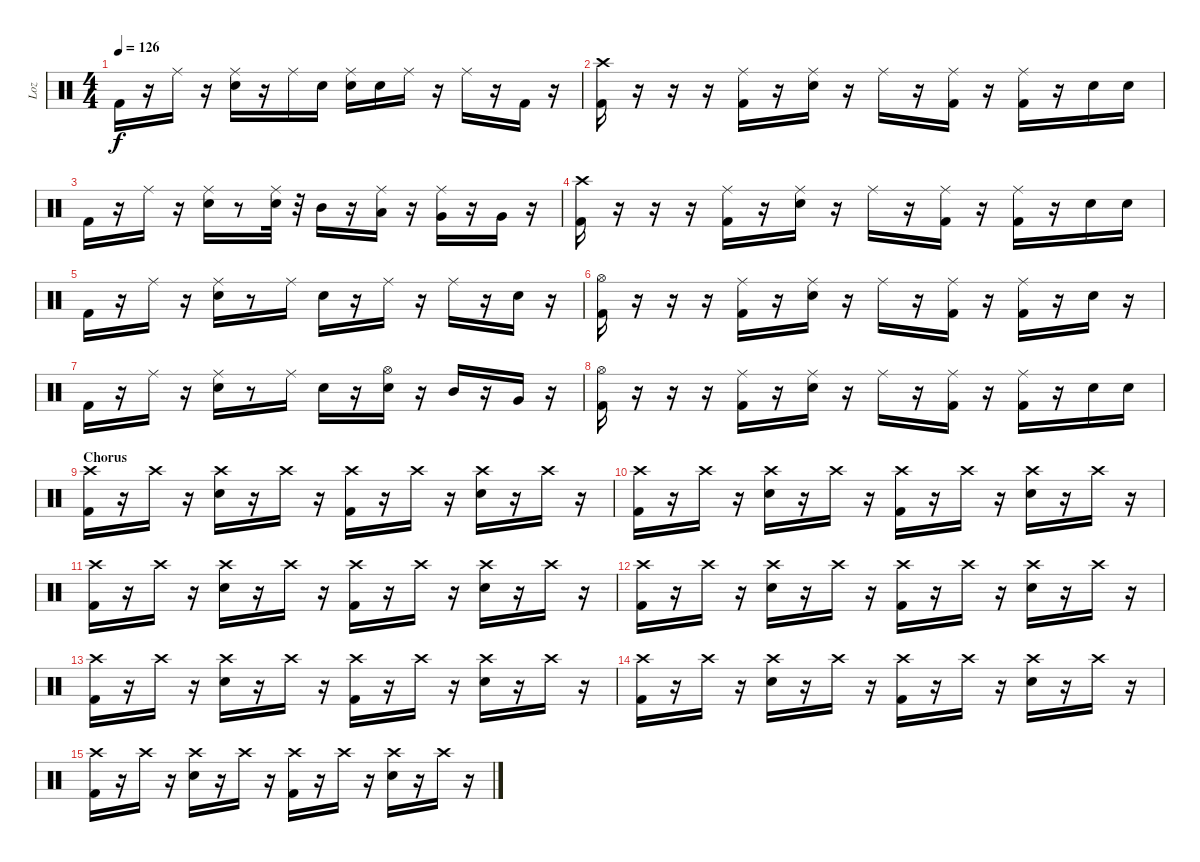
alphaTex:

\track ("Loz" "Loz") {instrument percussion}
\staff {score}
\articulation defaults
\ts (4 4)
\tempo 126
\clef neutral
\ks c "Kick (hit) 2".16{dy f}
r.16 "Ride (middle)".16 r.16 ("Ride (middle)" "Snare (hit) 2").16 r.16 "Ride (middle)".16 "Snare (hit) 2".16 ("Ride (middle)" "Snare (hit) 2").16 "Snare (hit) 2".16 "Ride (middle)".16 r.16 "Ride (middle)".16 r.16 "Kick (hit) 2".16 r.16 |
("Crash high (hit)" "Kick (hit) 2").16 r.16 r.16 r.16 ("Ride (middle)" "Kick (hit) 2").16 r.16 ("Ride (middle)" "Snare (hit) 2").16 r.16 "Ride (middle)".16 r.16 ("Ride (middle)" "Kick (hit) 2").16 r.16 ("Ride (middle)" "Kick (hit) 2").16 r.16 "Snare (hit) 2".16 "Snare (hit) 2".16 |
"Kick (hit) 2".16 r.16 "Ride (middle)".16 r.16 ("Ride (middle)" "Snare (hit) 2").16 r.8 ("Ride (middle)" "Snare (hit) 2").32 r.32 "Mid Tom (hit)".16 r.16 ("Ride (middle)" "Low Tom (hit)").16 r.16 ("Ride (middle)" "Very Low Tom (hit)").16 r.16 "Very Low Tom (hit)".16 r.16 |
("Crash high (hit)" "Kick (hit) 2").16 r.16 r.16 r.16 ("Ride (middle)" "Kick (hit) 2").16 r.16 ("Ride (middle)" "Snare (hit) 2").16 r.16 "Ride (middle)".16 r.16 ("Ride (middle)" "Kick (hit) 2").16 r.16 ("Ride (middle)" "Kick (hit) 2").16 r.16 "Snare (hit) 2".16 "Snare (hit) 2".16 |
"Kick (hit) 2".16 r.16 "Ride (middle)".16 r.16 ("Ride (middle)" "Snare (hit) 2").16 r.8 "Ride (middle)".16 "Snare (hit) 2".16 r.16 "Ride (middle)".16 r.16 "Ride (middle)".16 r.16 "Snare (hit) 2".16 r.16 |
("Hi-Hat (open)" "Kick (hit) 2").16 r.16 r.16 r.16 ("Ride (middle)" "Kick (hit) 2").16 r.16 ("Ride (middle)" "Snare (hit) 2").16 r.16 "Ride (middle)".16 r.16 ("Ride (middle)" "Kick (hit) 2").16 r.16 ("Ride (middle)" "Kick (hit) 2").16 r.16 "Snare (hit) 2".16 r.16 |
"Kick (hit) 2".16 r.16 "Ride (middle)".16 r.16 ("Ride (middle)" "Snare (hit) 2").16 r.8 "Ride (middle)".16 "Snare (hit) 2".16 r.16 ("Hi-Hat (open)" "Snare (hit) 2").16 r.16 "Mid Tom (hit)".16 r.16 "Very Low Tom (hit)".16 r.16 |
("Hi-Hat (open)" "Kick (hit) 2").16 r.16 r.16 r.16 ("Ride (middle)" "Kick (hit) 2").16 r.16 ("Ride (middle)" "Snare (hit) 2").16 r.16 "Ride (middle)".16 r.16 ("Ride (middle)" "Kick (hit) 2").16 r.16 ("Ride (middle)" "Kick (hit) 2").16 r.16 "Snare (hit) 2".16 "Snare (hit) 2".16 |
\section ("" "Chorus")
("Crash high (hit)" "Kick (hit) 2").16 r.16 "Crash high (hit)".16 r.16 ("Crash high (hit)" "Snare (hit) 2").16 r.16 "Crash high (hit)".16 r.16 ("Crash high (hit)" "Kick (hit) 2").16 r.16 "Crash high (hit)".16 r.16 ("Crash high (hit)" "Snare (hit) 2").16 r.16 "Crash high (hit)".16 r.16 |
("Crash high (hit)" "Kick (hit) 2").16 r.16 "Crash high (hit)".16 r.16 ("Crash high (hit)" "Snare (hit) 2").16 r.16 "Crash high (hit)".16 r.16 ("Crash high (hit)" "Kick (hit) 2").16 r.16 "Crash high (hit)".16 r.16 ("Crash high (hit)" "Snare (hit) 2").16 r.16 "Crash high (hit)".16 r.16 |
("Crash high (hit)" "Kick (hit) 2").16 r.16 "Crash high (hit)".16 r.16 ("Crash high (hit)" "Snare (hit) 2").16 r.16 "Crash high (hit)".16 r.16 ("Crash high (hit)" "Kick (hit) 2").16 r.16 "Crash high (hit)".16 r.16 ("Crash high (hit)" "Snare (hit) 2").16 r.16 "Crash high (hit)".16 r.16 |
("Crash high (hit)" "Kick (hit) 2").16 r.16 "Crash high (hit)".16 r.16 ("Crash high (hit)" "Snare (hit) 2").16 r.16 "Crash high (hit)".16 r.16 ("Crash high (hit)" "Kick (hit) 2").16 r.16 "Crash high (hit)".16 r.16 ("Crash high (hit)" "Snare (hit) 2").16 r.16 "Crash high (hit)".16 r.16 |
("Crash high (hit)" "Kick (hit) 2").16 r.16 "Crash high (hit)".16 r.16 ("Crash high (hit)" "Snare (hit) 2").16 r.16 "Crash high (hit)".16 r.16 ("Crash high (hit)" "Kick (hit) 2").16 r.16 "Crash high (hit)".16 r.16 ("Crash high (hit)" "Snare (hit) 2").16 r.16 "Crash high (hit)".16 r.16 |
("Crash high (hit)" "Kick (hit) 2").16 r.16 "Crash high (hit)".16 r.16 ("Crash high (hit)" "Snare (hit) 2").16 r.16 "Crash high (hit)".16 r.16 ("Crash high (hit)" "Kick (hit) 2").16 r.16 "Crash high (hit)".16 r.16 ("Crash high (hit)" "Snare (hit) 2").16 r.16 "Crash high (hit)".16 r.16 |
("Crash high (hit)" "Kick (hit) 2").16 r.16 "Crash high (hit)".16 r.16 ("Crash high (hit)" "Snare (hit) 2").16 r.16 "Crash high (hit)".16 r.16 ("Crash high (hit)" "Kick (hit) 2").16 r.16 "Crash high (hit)".16 r.16 ("Crash high (hit)" "Snare (hit) 2").16 r.16 "Crash high (hit)".16 r.16
